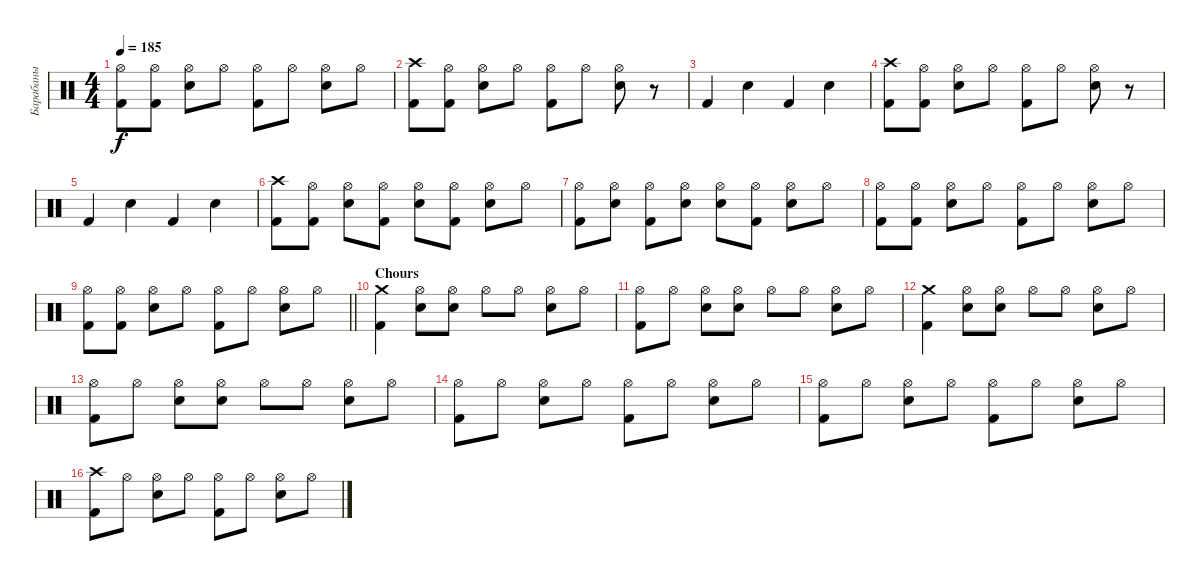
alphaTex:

\track ("Барабаны" "Барабаны") {instrument percussion}
\staff {score}
\articulation defaults
\ts (4 4)
\tempo 185
\clef neutral
\ks c
("Hi-Hat (open)" "Kick (hit) 2").8{dy f} ("Hi-Hat (open)" "Kick (hit) 2").8 ("Hi-Hat (open)" "Snare (hit) 2").8 "Hi-Hat (open)".8 ("Hi-Hat (open)" "Kick (hit) 2").8 "Hi-Hat (open)".8 ("Hi-Hat (open)" "Snare (hit) 2").8 "Hi-Hat (open)".8 |
("Crash high (hit)" "Kick (hit) 2").8 ("Hi-Hat (open)" "Kick (hit) 2").8 ("Hi-Hat (open)" "Snare (hit) 2").8 "Hi-Hat (open)".8 ("Hi-Hat (open)" "Kick (hit) 2").8 "Hi-Hat (open)".8 ("Hi-Hat (open)" "Snare (hit) 2").8 r.8 |
"Kick (hit) 2".4 "Snare (hit) 2".4 "Kick (hit) 2".4 "Snare (hit) 2".4 |
("Crash high (hit)" "Kick (hit) 2").8 ("Hi-Hat (open)" "Kick (hit) 2").8 ("Hi-Hat (open)" "Snare (hit) 2").8 "Hi-Hat (open)".8 ("Hi-Hat (open)" "Kick (hit) 2").8 "Hi-Hat (open)".8 ("Hi-Hat (open)" "Snare (hit) 2").8 r.8 |
"Kick (hit) 2".4 "Snare (hit) 2".4 "Kick (hit) 2".4 "Snare (hit) 2".4 |
("Crash high (hit)" "Kick (hit) 2").8 ("Hi-Hat (open)" "Kick (hit) 2").8 ("Hi-Hat (open)" "Snare (hit) 2").8 ("Hi-Hat (open)" "Kick (hit) 2").8 ("Hi-Hat (open)" "Snare (hit) 2").8 ("Hi-Hat (open)" "Kick (hit) 2").8 ("Hi-Hat (open)" "Snare (hit) 2").8 "Hi-Hat (open)".8 |
("Hi-Hat (open)" "Kick (hit) 2").8 ("Hi-Hat (open)" "Snare (hit) 2").8 ("Hi-Hat (open)" "Kick (hit) 2").8 ("Hi-Hat (open)" "Snare (hit) 2").8 ("Hi-Hat (open)" "Snare (hit) 2").8 ("Hi-Hat (open)" "Kick (hit) 2").8 ("Hi-Hat (open)" "Snare (hit) 2").8 "Hi-Hat (open)".8 |
("Hi-Hat (open)" "Kick (hit) 2").8 ("Hi-Hat (open)" "Kick (hit) 2").8 ("Hi-Hat (open)" "Snare (hit) 2").8 "Hi-Hat (open)".8 ("Hi-Hat (open)" "Kick (hit) 2").8 "Hi-Hat (open)".8 ("Hi-Hat (open)" "Snare (hit) 2").8 "Hi-Hat (open)".8 |
\barLineRight lightlight
("Hi-Hat (open)" "Kick (hit) 2").8 ("Hi-Hat (open)" "Kick (hit) 2").8 ("Hi-Hat (open)" "Snare (hit) 2").8 "Hi-Hat (open)".8 ("Hi-Hat (open)" "Kick (hit) 2").8 "Hi-Hat (open)".8 ("Hi-Hat (open)" "Snare (hit) 2").8 "Hi-Hat (open)".8 |
\section ("" "Chours")
("Crash medium (hit)" "Kick (hit) 2").4 ("Hi-Hat (open)" "Snare (hit) 2").8 ("Hi-Hat (open)" "Snare (hit) 2").8 "Hi-Hat (open)".8 "Hi-Hat (open)".8 ("Hi-Hat (open)" "Snare (hit) 2").8 "Hi-Hat (open)".8 |
("Hi-Hat (open)" "Kick (hit) 2").8 "Hi-Hat (open)".8 ("Hi-Hat (open)" "Snare (hit) 2").8 ("Hi-Hat (open)" "Snare (hit) 2").8 "Hi-Hat (open)".8 "Hi-Hat (open)".8 ("Hi-Hat (open)" "Snare (hit) 2").8 "Hi-Hat (open)".8 |
("Crash medium (hit)" "Kick (hit) 2").4 ("Hi-Hat (open)" "Snare (hit) 2").8 ("Hi-Hat (open)" "Snare (hit) 2").8 "Hi-Hat (open)".8 "Hi-Hat (open)".8 ("Hi-Hat (open)" "Snare (hit) 2").8 "Hi-Hat (open)".8 |
("Hi-Hat (open)" "Kick (hit) 2").8 "Hi-Hat (open)".8 ("Hi-Hat (open)" "Snare (hit) 2").8 ("Hi-Hat (open)" "Snare (hit) 2").8 "Hi-Hat (open)".8 "Hi-Hat (open)".8 ("Hi-Hat (open)" "Snare (hit) 2").8 "Hi-Hat (open)".8 |
("Hi-Hat (open)" "Kick (hit) 2").8 "Hi-Hat (open)".8 ("Hi-Hat (open)" "Snare (hit) 2").8 "Hi-Hat (open)".8 ("Hi-Hat (open)" "Kick (hit) 2").8 "Hi-Hat (open)".8 ("Hi-Hat (open)" "Snare (hit) 2").8 "Hi-Hat (open)".8 |
("Hi-Hat (open)" "Kick (hit) 2").8 "Hi-Hat (open)".8 ("Hi-Hat (open)" "Snare (hit) 2").8 "Hi-Hat (open)".8 ("Hi-Hat (open)" "Kick (hit) 2").8 "Hi-Hat (open)".8 ("Hi-Hat (open)" "Snare (hit) 2").8 "Hi-Hat (open)".8 |
("Crash high (hit)" "Kick (hit) 2").8 "Hi-Hat (open)".8 ("Hi-Hat (open)" "Snare (hit) 2").8 "Hi-Hat (open)".8 ("Hi-Hat (open)" "Kick (hit) 2").8 "Hi-Hat (open)".8 ("Hi-Hat (open)" "Snare (hit) 2").8 "Hi-Hat (open)".8
